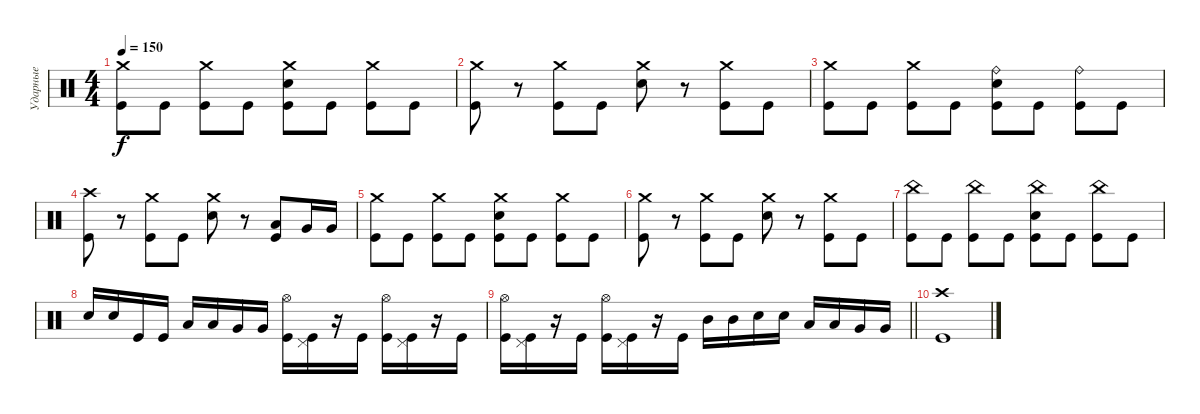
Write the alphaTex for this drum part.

\track ("Ударные" "Ударные") {instrument percussion}
\staff {score}
\articulation defaults
\ts (4 4)
\tempo 150
\clef neutral
\ks c
("Crash medium (hit)" "Kick (hit)").8{dy f} "Kick (hit)".8 ("Crash medium (hit)" "Kick (hit)").8 "Kick (hit)".8 ("Crash medium (hit)" "Electric Snare (hit)" "Kick (hit)").8 "Kick (hit)".8 ("Crash medium (hit)" "Kick (hit)").8 "Kick (hit)".8 |
("Crash medium (hit)" "Kick (hit)").8 r.8 ("Crash medium (hit)" "Kick (hit)").8 "Kick (hit)".8 ("Crash medium (hit)" "Electric Snare (hit)").8 r.8 ("Crash medium (hit)" "Kick (hit)").8 "Kick (hit)".8 |
("Crash medium (hit)" "Kick (hit)").8 "Kick (hit)".8 ("Crash medium (hit)" "Kick (hit)").8 "Kick (hit)".8 ("Ride (bell)" "Electric Snare (hit)" "Kick (hit)").8 "Kick (hit)".8 ("Ride (bell)" "Kick (hit)").8 "Kick (hit)".8 |
("Crash high (hit)" "Kick (hit)").8 r.8 ("Crash medium (hit)" "Kick (hit)").8 "Kick (hit)".8 ("Crash medium (hit)" "Electric Snare (hit)").8 r.8 ("Low Tom (hit)" "Kick (hit)").8 "Very Low Tom (hit)".16 "Very Low Tom (hit)".16 |
("Crash medium (hit)" "Kick (hit)").8 "Kick (hit)".8 ("Crash medium (hit)" "Kick (hit)").8 "Kick (hit)".8 ("Crash medium (hit)" "Electric Snare (hit)" "Kick (hit)").8 "Kick (hit)".8 ("Crash medium (hit)" "Kick (hit)").8 "Kick (hit)".8 |
("Crash medium (hit)" "Kick (hit)").8 r.8 ("Crash medium (hit)" "Kick (hit)").8 "Kick (hit)".8 ("Crash medium (hit)" "Electric Snare (hit)").8 r.8 ("Crash medium (hit)" "Kick (hit)").8 "Kick (hit)".8 |
("China (hit)" "Kick (hit)").8 "Kick (hit)".8 ("China (hit)" "Kick (hit)").8 "Kick (hit)".8 ("China (hit)" "Electric Snare (hit)" "Kick (hit)").8 "Kick (hit)".8 ("China (hit)" "Kick (hit)").8 "Kick (hit)".8 |
"Electric Snare (hit)".16 "Electric Snare (hit)".16 "Kick (hit)".16 "Kick (hit)".16 "Low Tom (hit)".16 "Low Tom (hit)".16 "Very Low Tom (hit)".16 "Very Low Tom (hit)".16 ("Hi-Hat (open)" "Kick (hit)").16 ("Pedal Hi-Hat (hit)" "Kick (hit)").16 r.16 "Kick (hit)".16 ("Hi-Hat (open)" "Kick (hit)").16 ("Pedal Hi-Hat (hit)" "Kick (hit)").16 r.16 "Kick (hit)".16 |
\barLineRight lightlight
("Hi-Hat (open)" "Kick (hit)").16 ("Pedal Hi-Hat (hit)" "Kick (hit)").16 r.16 "Kick (hit)".16 ("Hi-Hat (open)" "Kick (hit)").16 ("Pedal Hi-Hat (hit)" "Kick (hit)").16 r.16 "Kick (hit)".16 "Mid Tom (hit)".16 "Mid Tom (hit)".16 "Electric Snare (hit)".16 "Electric Snare (hit)".16 "Low Tom (hit)".16 "Low Tom (hit)".16 "Very Low Tom (hit)".16 "Very Low Tom (hit)".16 |
("Crash high (hit)" "Kick (hit)").1
